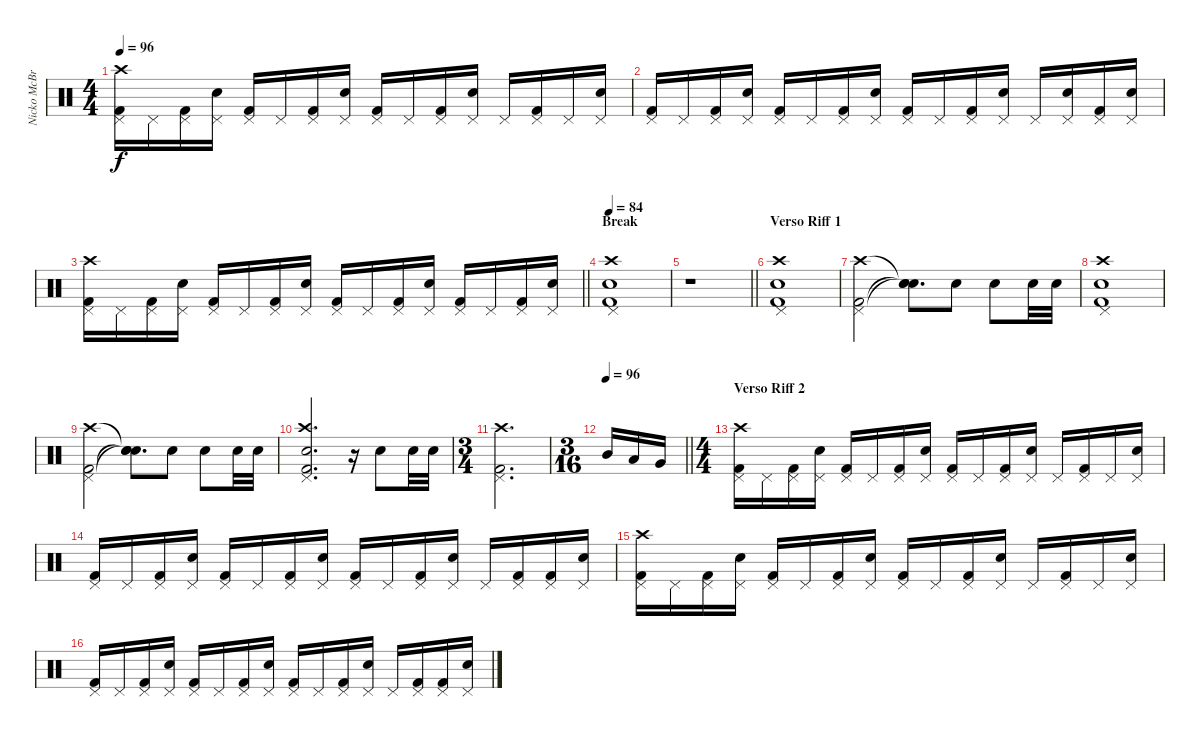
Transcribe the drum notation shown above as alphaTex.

\track ("Nicko McBrain" "Nicko McBr") {instrument percussion}
\staff {score}
\articulation defaults
\ts (4 4)
\tempo 96
\clef neutral
\ks c
("Kick (hit) 2" "Pedal Hi-Hat (hit)" "Crash high (hit)").16{dy f} "Pedal Hi-Hat (hit)".16 ("Kick (hit) 2" "Pedal Hi-Hat (hit)").16 ("Snare (hit) 2" "Pedal Hi-Hat (hit)").16 ("Kick (hit) 2" "Pedal Hi-Hat (hit)").16 "Pedal Hi-Hat (hit)".16 ("Kick (hit) 2" "Pedal Hi-Hat (hit)").16 ("Snare (hit) 2" "Pedal Hi-Hat (hit)").16 ("Kick (hit) 2" "Pedal Hi-Hat (hit)").16 "Pedal Hi-Hat (hit)".16 ("Kick (hit) 2" "Pedal Hi-Hat (hit)").16 ("Snare (hit) 2" "Pedal Hi-Hat (hit)").16 "Pedal Hi-Hat (hit)".16 ("Kick (hit) 2" "Pedal Hi-Hat (hit)").16 "Pedal Hi-Hat (hit)".16 ("Snare (hit) 2" "Pedal Hi-Hat (hit)").16 |
("Kick (hit) 2" "Pedal Hi-Hat (hit)").16 "Pedal Hi-Hat (hit)".16 ("Kick (hit) 2" "Pedal Hi-Hat (hit)").16 ("Snare (hit) 2" "Pedal Hi-Hat (hit)").16 ("Kick (hit) 2" "Pedal Hi-Hat (hit)").16 "Pedal Hi-Hat (hit)".16 ("Kick (hit) 2" "Pedal Hi-Hat (hit)").16 ("Snare (hit) 2" "Pedal Hi-Hat (hit)").16 ("Kick (hit) 2" "Pedal Hi-Hat (hit)").16 "Pedal Hi-Hat (hit)".16 ("Kick (hit) 2" "Pedal Hi-Hat (hit)").16 ("Snare (hit) 2" "Pedal Hi-Hat (hit)").16 "Pedal Hi-Hat (hit)".16 ("Snare (hit) 2" "Pedal Hi-Hat (hit)").16 ("Kick (hit) 2" "Pedal Hi-Hat (hit)").16 ("Snare (hit) 2" "Pedal Hi-Hat (hit)").16 |
\barLineRight lightlight
("Kick (hit) 2" "Pedal Hi-Hat (hit)" "Crash high (hit)").16 "Pedal Hi-Hat (hit)".16 ("Kick (hit) 2" "Pedal Hi-Hat (hit)").16 ("Snare (hit) 2" "Pedal Hi-Hat (hit)").16 ("Kick (hit) 2" "Pedal Hi-Hat (hit)").16 "Pedal Hi-Hat (hit)".16 ("Kick (hit) 2" "Pedal Hi-Hat (hit)").16 ("Snare (hit) 2" "Pedal Hi-Hat (hit)").16 ("Kick (hit) 2" "Pedal Hi-Hat (hit)").16 "Pedal Hi-Hat (hit)".16 ("Kick (hit) 2" "Pedal Hi-Hat (hit)").16 ("Snare (hit) 2" "Pedal Hi-Hat (hit)").16 ("Kick (hit) 2" "Pedal Hi-Hat (hit)").16 "Pedal Hi-Hat (hit)".16 ("Kick (hit) 2" "Pedal Hi-Hat (hit)").16 ("Snare (hit) 2" "Pedal Hi-Hat (hit)").16 |
\section ("" "Break")
\tempo 84
("Snare (hit) 2" "Kick (hit) 2" "Pedal Hi-Hat (hit)" "Crash high (hit)").1 |
\barLineRight lightlight
r.1 |
\section ("" "Verso Riff 1")
("Snare (hit) 2" "Kick (hit) 2" "Pedal Hi-Hat (hit)" "Crash high (hit)").1 |
("Kick (hit) 2" "Pedal Hi-Hat (hit)" "Crash high (hit)").2 ("Snare (hit)"{t} "Snare (hit)"{t} "Snare (hit)"{t}).8{d} "Snare (hit) 2".8 "Snare (hit) 2".8 "Snare (hit) 2".32 "Snare (hit) 2".32 |
("Snare (hit) 2" "Kick (hit) 2" "Pedal Hi-Hat (hit)" "Crash high (hit)").1 |
("Kick (hit) 2" "Pedal Hi-Hat (hit)" "Crash high (hit)").2 ("Snare (hit)"{t} "Snare (hit)"{t} "Snare (hit)"{t}).8{d} "Snare (hit) 2".8 "Snare (hit) 2".8 "Snare (hit) 2".32 "Snare (hit) 2".32 |
("Snare (hit) 2" "Kick (hit) 2" "Pedal Hi-Hat (hit)" "Crash high (hit)").2{d} r.16 "Snare (hit) 2".8 "Snare (hit) 2".32 "Snare (hit) 2".32 |
\ts (3 4)
("Kick (hit) 2" "Pedal Hi-Hat (hit)" "Crash high (hit)").2{d} |
\ts (3 16)
\tempo 96
\barLineRight lightlight "Mid Tom (hit)".16 "Low Tom (hit)".16 "Very Low Tom (hit)".16
|
\ts (4 4)
\section ("" "Verso Riff 2")
("Kick (hit) 2" "Pedal Hi-Hat (hit)" "Crash high (hit)").16 "Pedal Hi-Hat (hit)".16 ("Kick (hit) 2" "Pedal Hi-Hat (hit)").16 ("Snare (hit) 2" "Pedal Hi-Hat (hit)").16 ("Kick (hit) 2" "Pedal Hi-Hat (hit)").16 "Pedal Hi-Hat (hit)".16 ("Kick (hit) 2" "Pedal Hi-Hat (hit)").16 ("Snare (hit) 2" "Pedal Hi-Hat (hit)").16 ("Kick (hit) 2" "Pedal Hi-Hat (hit)").16 "Pedal Hi-Hat (hit)".16 ("Kick (hit) 2" "Pedal Hi-Hat (hit)").16 ("Snare (hit) 2" "Pedal Hi-Hat (hit)").16 "Pedal Hi-Hat (hit)".16 ("Kick (hit) 2" "Pedal Hi-Hat (hit)").16 "Pedal Hi-Hat (hit)".16 ("Snare (hit) 2" "Pedal Hi-Hat (hit)").16 |
("Kick (hit) 2" "Pedal Hi-Hat (hit)").16 "Pedal Hi-Hat (hit)".16 ("Kick (hit) 2" "Pedal Hi-Hat (hit)").16 ("Snare (hit) 2" "Pedal Hi-Hat (hit)").16 ("Kick (hit) 2" "Pedal Hi-Hat (hit)").16 "Pedal Hi-Hat (hit)".16 ("Kick (hit) 2" "Pedal Hi-Hat (hit)").16 ("Snare (hit) 2" "Pedal Hi-Hat (hit)").16 ("Kick (hit) 2" "Pedal Hi-Hat (hit)").16 "Pedal Hi-Hat (hit)".16 ("Kick (hit) 2" "Pedal Hi-Hat (hit)").16 ("Snare (hit) 2" "Pedal Hi-Hat (hit)").16 "Pedal Hi-Hat (hit)".16 ("Kick (hit) 2" "Pedal Hi-Hat (hit)").16 ("Kick (hit) 2" "Pedal Hi-Hat (hit)").16 ("Snare (hit) 2" "Pedal Hi-Hat (hit)").16 |
("Kick (hit) 2" "Pedal Hi-Hat (hit)" "Crash high (hit)").16 "Pedal Hi-Hat (hit)".16 ("Kick (hit) 2" "Pedal Hi-Hat (hit)").16 ("Snare (hit) 2" "Pedal Hi-Hat (hit)").16 ("Kick (hit) 2" "Pedal Hi-Hat (hit)").16 "Pedal Hi-Hat (hit)".16 ("Kick (hit) 2" "Pedal Hi-Hat (hit)").16 ("Snare (hit) 2" "Pedal Hi-Hat (hit)").16 ("Kick (hit) 2" "Pedal Hi-Hat (hit)").16 "Pedal Hi-Hat (hit)".16 ("Kick (hit) 2" "Pedal Hi-Hat (hit)").16 ("Snare (hit) 2" "Pedal Hi-Hat (hit)").16 "Pedal Hi-Hat (hit)".16 ("Kick (hit) 2" "Pedal Hi-Hat (hit)").16 "Pedal Hi-Hat (hit)".16 ("Snare (hit) 2" "Pedal Hi-Hat (hit)").16 |
("Kick (hit) 2" "Pedal Hi-Hat (hit)").16 "Pedal Hi-Hat (hit)".16 ("Kick (hit) 2" "Pedal Hi-Hat (hit)").16 ("Snare (hit) 2" "Pedal Hi-Hat (hit)").16 ("Kick (hit) 2" "Pedal Hi-Hat (hit)").16 "Pedal Hi-Hat (hit)".16 ("Kick (hit) 2" "Pedal Hi-Hat (hit)").16 ("Snare (hit) 2" "Pedal Hi-Hat (hit)").16 ("Kick (hit) 2" "Pedal Hi-Hat (hit)").16 "Pedal Hi-Hat (hit)".16 ("Kick (hit) 2" "Pedal Hi-Hat (hit)").16 ("Snare (hit) 2" "Pedal Hi-Hat (hit)").16 "Pedal Hi-Hat (hit)".16 ("Kick (hit) 2" "Pedal Hi-Hat (hit)").16 ("Kick (hit) 2" "Pedal Hi-Hat (hit)").16 ("Snare (hit) 2" "Pedal Hi-Hat (hit)").16
